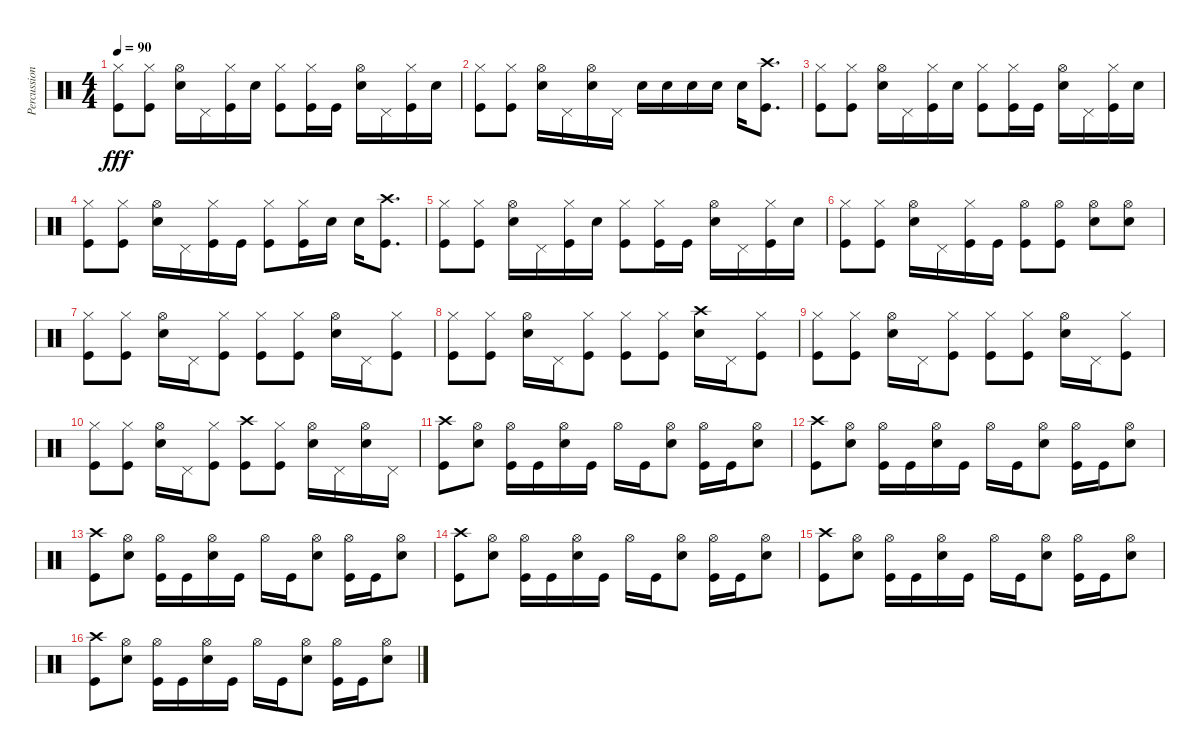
\track ("Percussion" "Percussion") {instrument percussion}
\staff {score}
\articulation defaults
\ts (4 4)
\tempo 90
\clef neutral
\ks c
("Hi-Hat (closed)" "Kick (hit)").8{dy fff} ("Hi-Hat (closed)" "Kick (hit)").8 ("Hi-Hat (open)" "Electric Snare (hit)").16 "Pedal Hi-Hat (hit)".16 ("Hi-Hat (closed)" "Kick (hit)").16 "Electric Snare (hit)".16 ("Hi-Hat (closed)" "Kick (hit)").8 ("Hi-Hat (closed)" "Kick (hit)").16 "Kick (hit)".16 ("Hi-Hat (open)" "Electric Snare (hit)").16 "Pedal Hi-Hat (hit)".16 ("Hi-Hat (closed)" "Kick (hit)").16 "Electric Snare (hit)".16 |
("Hi-Hat (closed)" "Kick (hit)").8 ("Hi-Hat (closed)" "Kick (hit)").8 ("Hi-Hat (open)" "Electric Snare (hit)").16 "Pedal Hi-Hat (hit)".16 ("Hi-Hat (open)" "Electric Snare (hit)").16 "Pedal Hi-Hat (hit)".16 "Electric Snare (hit)".16 "Electric Snare (hit)".16 "Electric Snare (hit)".16 "Electric Snare (hit)".16 "Electric Snare (hit)".16 ("Crash high (hit)" "Kick (hit)").8{d} |
("Hi-Hat (closed)" "Kick (hit)").8 ("Hi-Hat (closed)" "Kick (hit)").8 ("Hi-Hat (open)" "Electric Snare (hit)").16 "Pedal Hi-Hat (hit)".16 ("Hi-Hat (closed)" "Kick (hit)").16 "Electric Snare (hit)".16 ("Hi-Hat (closed)" "Kick (hit)").8 ("Hi-Hat (closed)" "Kick (hit)").16 "Kick (hit)".16 ("Hi-Hat (open)" "Electric Snare (hit)").16 "Pedal Hi-Hat (hit)".16 ("Hi-Hat (closed)" "Kick (hit)").16 "Electric Snare (hit)".16 |
("Hi-Hat (closed)" "Kick (hit)").8 ("Hi-Hat (closed)" "Kick (hit)").8 ("Hi-Hat (open)" "Electric Snare (hit)").16 "Pedal Hi-Hat (hit)".16 ("Hi-Hat (closed)" "Kick (hit)").16 "Kick (hit)".16 ("Hi-Hat (closed)" "Kick (hit)").8 ("Hi-Hat (closed)" "Kick (hit)").16 "Electric Snare (hit)".16 "Electric Snare (hit)".16 ("Crash high (hit)" "Kick (hit)").8{d} |
("Hi-Hat (closed)" "Kick (hit)").8 ("Hi-Hat (closed)" "Kick (hit)").8 ("Hi-Hat (open)" "Electric Snare (hit)").16 "Pedal Hi-Hat (hit)".16 ("Hi-Hat (closed)" "Kick (hit)").16 "Electric Snare (hit)".16 ("Hi-Hat (closed)" "Kick (hit)").8 ("Hi-Hat (closed)" "Kick (hit)").16 "Kick (hit)".16 ("Hi-Hat (open)" "Electric Snare (hit)").16 "Pedal Hi-Hat (hit)".16 ("Hi-Hat (closed)" "Kick (hit)").16 "Electric Snare (hit)".16 |
("Hi-Hat (closed)" "Kick (hit)").8 ("Hi-Hat (closed)" "Kick (hit)").8 ("Hi-Hat (open)" "Electric Snare (hit)").16 "Pedal Hi-Hat (hit)".16 ("Hi-Hat (closed)" "Kick (hit)").16 "Kick (hit)".16 ("Hi-Hat (open)" "Kick (hit)").8 ("Hi-Hat (open)" "Kick (hit)").8 ("Hi-Hat (open)" "Electric Snare (hit)").8 ("Hi-Hat (open)" "Electric Snare (hit)").8 |
("Hi-Hat (closed)" "Kick (hit)").8 ("Hi-Hat (closed)" "Kick (hit)").8 ("Hi-Hat (open)" "Electric Snare (hit)").16 "Pedal Hi-Hat (hit)".16 ("Hi-Hat (closed)" "Kick (hit)").8 ("Hi-Hat (closed)" "Kick (hit)").8 ("Hi-Hat (closed)" "Kick (hit)").8 ("Hi-Hat (open)" "Electric Snare (hit)").16 "Pedal Hi-Hat (hit)".16 ("Hi-Hat (closed)" "Kick (hit)").8 |
("Hi-Hat (closed)" "Kick (hit)").8 ("Hi-Hat (closed)" "Kick (hit)").8 ("Hi-Hat (open)" "Electric Snare (hit)").16 "Pedal Hi-Hat (hit)".16 ("Hi-Hat (closed)" "Kick (hit)").8 ("Hi-Hat (closed)" "Kick (hit)").8 ("Hi-Hat (closed)" "Kick (hit)").8 ("Crash high (hit)" "Electric Snare (hit)").16 "Pedal Hi-Hat (hit)".16 ("Hi-Hat (closed)" "Kick (hit)").8 |
("Hi-Hat (closed)" "Kick (hit)").8 ("Hi-Hat (closed)" "Kick (hit)").8 ("Hi-Hat (open)" "Electric Snare (hit)").16 "Pedal Hi-Hat (hit)".16 ("Hi-Hat (closed)" "Kick (hit)").8 ("Hi-Hat (closed)" "Kick (hit)").8 ("Hi-Hat (closed)" "Kick (hit)").8 ("Hi-Hat (open)" "Electric Snare (hit)").16 "Pedal Hi-Hat (hit)".16 ("Hi-Hat (closed)" "Kick (hit)").8 |
("Hi-Hat (closed)" "Kick (hit)").8 ("Hi-Hat (closed)" "Kick (hit)").8 ("Hi-Hat (open)" "Electric Snare (hit)").16 "Pedal Hi-Hat (hit)".16 ("Hi-Hat (closed)" "Kick (hit)").8 ("Crash high (hit)" "Kick (hit)").8 ("Hi-Hat (closed)" "Kick (hit)").8 ("Hi-Hat (open)" "Electric Snare (hit)").16 "Pedal Hi-Hat (hit)".16 ("Hi-Hat (open)" "Electric Snare (hit)").16 "Pedal Hi-Hat (hit)".16 |
("Crash high (hit)" "Kick (hit)").8 ("Hi-Hat (open)" "Electric Snare (hit)").8 ("Hi-Hat (open)" "Kick (hit)").16 "Kick (hit)".16 ("Hi-Hat (open)" "Electric Snare (hit)").16 "Kick (hit)".16 "Hi-Hat (open)".16 "Kick (hit)".16 ("Hi-Hat (open)" "Electric Snare (hit)").8 ("Hi-Hat (open)" "Kick (hit)").16 "Kick (hit)".16 ("Hi-Hat (open)" "Electric Snare (hit)").8 |
("Crash high (hit)" "Kick (hit)").8 ("Hi-Hat (open)" "Electric Snare (hit)").8 ("Hi-Hat (open)" "Kick (hit)").16 "Kick (hit)".16 ("Hi-Hat (open)" "Electric Snare (hit)").16 "Kick (hit)".16 "Hi-Hat (open)".16 "Kick (hit)".16 ("Hi-Hat (open)" "Electric Snare (hit)").8 ("Hi-Hat (open)" "Kick (hit)").16 "Kick (hit)".16 ("Hi-Hat (open)" "Electric Snare (hit)").8 |
("Crash high (hit)" "Kick (hit)").8 ("Hi-Hat (open)" "Electric Snare (hit)").8 ("Hi-Hat (open)" "Kick (hit)").16 "Kick (hit)".16 ("Hi-Hat (open)" "Electric Snare (hit)").16 "Kick (hit)".16 "Hi-Hat (open)".16 "Kick (hit)".16 ("Hi-Hat (open)" "Electric Snare (hit)").8 ("Hi-Hat (open)" "Kick (hit)").16 "Kick (hit)".16 ("Hi-Hat (open)" "Electric Snare (hit)").8 |
("Crash high (hit)" "Kick (hit)").8 ("Hi-Hat (open)" "Electric Snare (hit)").8 ("Hi-Hat (open)" "Kick (hit)").16 "Kick (hit)".16 ("Hi-Hat (open)" "Electric Snare (hit)").16 "Kick (hit)".16 "Hi-Hat (open)".16 "Kick (hit)".16 ("Hi-Hat (open)" "Electric Snare (hit)").8 ("Hi-Hat (open)" "Kick (hit)").16 "Kick (hit)".16 ("Hi-Hat (open)" "Electric Snare (hit)").8 |
("Crash high (hit)" "Kick (hit)").8 ("Hi-Hat (open)" "Electric Snare (hit)").8 ("Hi-Hat (open)" "Kick (hit)").16 "Kick (hit)".16 ("Hi-Hat (open)" "Electric Snare (hit)").16 "Kick (hit)".16 "Hi-Hat (open)".16 "Kick (hit)".16 ("Hi-Hat (open)" "Electric Snare (hit)").8 ("Hi-Hat (open)" "Kick (hit)").16 "Kick (hit)".16 ("Hi-Hat (open)" "Electric Snare (hit)").8 |
("Crash high (hit)" "Kick (hit)").8 ("Hi-Hat (open)" "Electric Snare (hit)").8 ("Hi-Hat (open)" "Kick (hit)").16 "Kick (hit)".16 ("Hi-Hat (open)" "Electric Snare (hit)").16 "Kick (hit)".16 "Hi-Hat (open)".16 "Kick (hit)".16 ("Hi-Hat (open)" "Electric Snare (hit)").8 ("Hi-Hat (open)" "Kick (hit)").16 "Kick (hit)".16 ("Hi-Hat (open)" "Electric Snare (hit)").8
